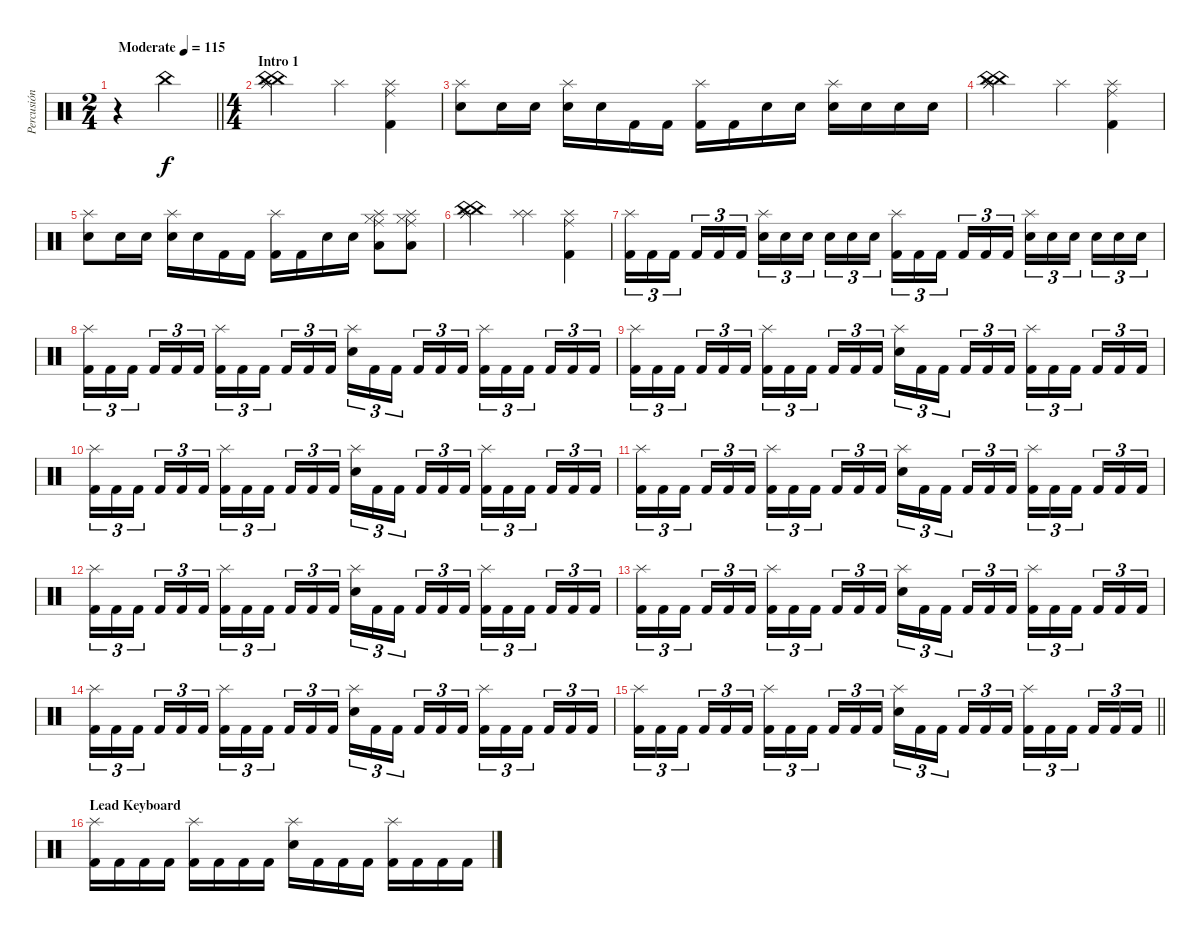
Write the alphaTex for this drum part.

\track ("Percusión" "Percusión") {instrument percussion}
\staff {score}
\articulation defaults
\ts (2 4)
\tempo (115 "Moderate")
\clef neutral
\barLineRight lightlight
\ks c
r.4{dy f} "China (hit)".4 |
\ts (4 4)
\section ("" "Intro 1")
("China (hit)" "China (hit)" "Splash (hit)" "Splash (hit)").2 "Splash (hit)".4 ("Splash (hit)" "Ride (middle)" "Kick (hit) 2").4 |
("Splash (hit)" "Snare (hit) 2").8 "Snare (hit) 2".16 "Snare (hit) 2".16 ("Splash (hit)" "Snare (hit) 2").16 "Snare (hit) 2".16 "Kick (hit) 2".16 "Kick (hit) 2".16 ("Splash (hit)" "Kick (hit) 2").16 "Kick (hit) 2".16 "Electric Snare (hit)".16 "Electric Snare (hit)".16 ("Splash (hit)" "Electric Snare (hit)").16 "Electric Snare (hit)".16 "Electric Snare (hit)".16 "Electric Snare (hit)".16 |
("China (hit)" "China (hit)" "Splash (hit)" "Splash (hit)").2 "Splash (hit)".4 ("Splash (hit)" "Ride (middle)" "Kick (hit) 2").4 |
("Splash (hit)" "Snare (hit) 2").8 "Snare (hit) 2".16 "Snare (hit) 2".16 ("Splash (hit)" "Snare (hit) 2").16 "Snare (hit) 2".16 "Kick (hit) 2".16 "Kick (hit) 2".16 ("Splash (hit)" "Kick (hit) 2").16 "Kick (hit) 2".16 "Electric Snare (hit)".16 "Electric Snare (hit)".16 ("Splash (hit)" "Hi-Hat (closed)" "Ride (middle)" "Low Floor Tom (hit)").8 ("Splash (hit)" "Hi-Hat (closed)" "Ride (middle)" "Low Floor Tom (hit)").8 |
("China (hit)" "China (hit)" "Splash (hit)" "Splash (hit)").2 ("Splash (hit)" "Splash (hit)").4 ("Splash (hit)" "Ride (middle)" "Kick (hit) 2").4 |
("Splash (hit)" "Kick (hit) 2").16{tu (3 2)} "Kick (hit) 2".16{tu (3 2)} "Kick (hit) 2".16{tu (3 2) beam splitsecondary} "Kick (hit) 2".16{tu (3 2)} "Kick (hit) 2".16{tu (3 2)} "Kick (hit) 2".16{tu (3 2)} ("Splash (hit)" "Snare (hit) 2").16{tu (3 2)} "Snare (hit) 2".16{tu (3 2)} "Snare (hit) 2".16{tu (3 2) beam splitsecondary} "Snare (hit) 2".16{tu (3 2)} "Snare (hit) 2".16{tu (3 2)} "Snare (hit) 2".16{tu (3 2)} ("Splash (hit)" "Kick (hit) 2").16{tu (3 2)} "Kick (hit) 2".16{tu (3 2)} "Kick (hit) 2".16{tu (3 2) beam splitsecondary} "Kick (hit) 2".16{tu (3 2)} "Kick (hit) 2".16{tu (3 2)} "Kick (hit) 2".16{tu (3 2)} ("Splash (hit)" "Snare (hit) 2").16{tu (3 2)} "Snare (hit) 2".16{tu (3 2)} "Snare (hit) 2".16{tu (3 2) beam splitsecondary} "Snare (hit) 2".16{tu (3 2)} "Snare (hit) 2".16{tu (3 2)} "Snare (hit) 2".16{tu (3 2)} |
("Splash (hit)" "Kick (hit) 2").16{tu (3 2)} "Kick (hit) 2".16{tu (3 2)} "Kick (hit) 2".16{tu (3 2) beam splitsecondary} "Kick (hit) 2".16{tu (3 2)} "Kick (hit) 2".16{tu (3 2)} "Kick (hit) 2".16{tu (3 2)} ("Splash (hit)" "Kick (hit) 2").16{tu (3 2)} "Kick (hit) 2".16{tu (3 2)} "Kick (hit) 2".16{tu (3 2) beam splitsecondary} "Kick (hit) 2".16{tu (3 2)} "Kick (hit) 2".16{tu (3 2)} "Kick (hit) 2".16{tu (3 2)} ("Splash (hit)" "Snare (hit) 2").16{tu (3 2)} "Kick (hit) 2".16{tu (3 2)} "Kick (hit) 2".16{tu (3 2) beam splitsecondary} "Kick (hit) 2".16{tu (3 2)} "Kick (hit) 2".16{tu (3 2)} "Kick (hit) 2".16{tu (3 2)} ("Splash (hit)" "Kick (hit) 2").16{tu (3 2)} "Kick (hit) 2".16{tu (3 2)} "Kick (hit) 2".16{tu (3 2) beam splitsecondary} "Kick (hit) 2".16{tu (3 2)} "Kick (hit) 2".16{tu (3 2)} "Kick (hit) 2".16{tu (3 2)} |
("Splash (hit)" "Kick (hit) 2").16{tu (3 2)} "Kick (hit) 2".16{tu (3 2)} "Kick (hit) 2".16{tu (3 2) beam splitsecondary} "Kick (hit) 2".16{tu (3 2)} "Kick (hit) 2".16{tu (3 2)} "Kick (hit) 2".16{tu (3 2)} ("Splash (hit)" "Kick (hit) 2").16{tu (3 2)} "Kick (hit) 2".16{tu (3 2)} "Kick (hit) 2".16{tu (3 2) beam splitsecondary} "Kick (hit) 2".16{tu (3 2)} "Kick (hit) 2".16{tu (3 2)} "Kick (hit) 2".16{tu (3 2)} ("Splash (hit)" "Snare (hit) 2").16{tu (3 2)} "Kick (hit) 2".16{tu (3 2)} "Kick (hit) 2".16{tu (3 2) beam splitsecondary} "Kick (hit) 2".16{tu (3 2)} "Kick (hit) 2".16{tu (3 2)} "Kick (hit) 2".16{tu (3 2)} ("Splash (hit)" "Kick (hit) 2").16{tu (3 2)} "Kick (hit) 2".16{tu (3 2)} "Kick (hit) 2".16{tu (3 2) beam splitsecondary} "Kick (hit) 2".16{tu (3 2)} "Kick (hit) 2".16{tu (3 2)} "Kick (hit) 2".16{tu (3 2)} |
("Splash (hit)" "Kick (hit) 2").16{tu (3 2)} "Kick (hit) 2".16{tu (3 2)} "Kick (hit) 2".16{tu (3 2) beam splitsecondary} "Kick (hit) 2".16{tu (3 2)} "Kick (hit) 2".16{tu (3 2)} "Kick (hit) 2".16{tu (3 2)} ("Splash (hit)" "Kick (hit) 2").16{tu (3 2)} "Kick (hit) 2".16{tu (3 2)} "Kick (hit) 2".16{tu (3 2) beam splitsecondary} "Kick (hit) 2".16{tu (3 2)} "Kick (hit) 2".16{tu (3 2)} "Kick (hit) 2".16{tu (3 2)} ("Splash (hit)" "Snare (hit) 2").16{tu (3 2)} "Kick (hit) 2".16{tu (3 2)} "Kick (hit) 2".16{tu (3 2) beam splitsecondary} "Kick (hit) 2".16{tu (3 2)} "Kick (hit) 2".16{tu (3 2)} "Kick (hit) 2".16{tu (3 2)} ("Splash (hit)" "Kick (hit) 2").16{tu (3 2)} "Kick (hit) 2".16{tu (3 2)} "Kick (hit) 2".16{tu (3 2) beam splitsecondary} "Kick (hit) 2".16{tu (3 2)} "Kick (hit) 2".16{tu (3 2)} "Kick (hit) 2".16{tu (3 2)} |
("Splash (hit)" "Kick (hit) 2").16{tu (3 2)} "Kick (hit) 2".16{tu (3 2)} "Kick (hit) 2".16{tu (3 2) beam splitsecondary} "Kick (hit) 2".16{tu (3 2)} "Kick (hit) 2".16{tu (3 2)} "Kick (hit) 2".16{tu (3 2)} ("Splash (hit)" "Kick (hit) 2").16{tu (3 2)} "Kick (hit) 2".16{tu (3 2)} "Kick (hit) 2".16{tu (3 2) beam splitsecondary} "Kick (hit) 2".16{tu (3 2)} "Kick (hit) 2".16{tu (3 2)} "Kick (hit) 2".16{tu (3 2)} ("Splash (hit)" "Snare (hit) 2").16{tu (3 2)} "Kick (hit) 2".16{tu (3 2)} "Kick (hit) 2".16{tu (3 2) beam splitsecondary} "Kick (hit) 2".16{tu (3 2)} "Kick (hit) 2".16{tu (3 2)} "Kick (hit) 2".16{tu (3 2)} ("Splash (hit)" "Kick (hit) 2").16{tu (3 2)} "Kick (hit) 2".16{tu (3 2)} "Kick (hit) 2".16{tu (3 2) beam splitsecondary} "Kick (hit) 2".16{tu (3 2)} "Kick (hit) 2".16{tu (3 2)} "Kick (hit) 2".16{tu (3 2)} |
("Splash (hit)" "Kick (hit) 2").16{tu (3 2)} "Kick (hit) 2".16{tu (3 2)} "Kick (hit) 2".16{tu (3 2) beam splitsecondary} "Kick (hit) 2".16{tu (3 2)} "Kick (hit) 2".16{tu (3 2)} "Kick (hit) 2".16{tu (3 2)} ("Splash (hit)" "Kick (hit) 2").16{tu (3 2)} "Kick (hit) 2".16{tu (3 2)} "Kick (hit) 2".16{tu (3 2) beam splitsecondary} "Kick (hit) 2".16{tu (3 2)} "Kick (hit) 2".16{tu (3 2)} "Kick (hit) 2".16{tu (3 2)} ("Splash (hit)" "Snare (hit) 2").16{tu (3 2)} "Kick (hit) 2".16{tu (3 2)} "Kick (hit) 2".16{tu (3 2) beam splitsecondary} "Kick (hit) 2".16{tu (3 2)} "Kick (hit) 2".16{tu (3 2)} "Kick (hit) 2".16{tu (3 2)} ("Splash (hit)" "Kick (hit) 2").16{tu (3 2)} "Kick (hit) 2".16{tu (3 2)} "Kick (hit) 2".16{tu (3 2) beam splitsecondary} "Kick (hit) 2".16{tu (3 2)} "Kick (hit) 2".16{tu (3 2)} "Kick (hit) 2".16{tu (3 2)} |
("Splash (hit)" "Kick (hit) 2").16{tu (3 2)} "Kick (hit) 2".16{tu (3 2)} "Kick (hit) 2".16{tu (3 2) beam splitsecondary} "Kick (hit) 2".16{tu (3 2)} "Kick (hit) 2".16{tu (3 2)} "Kick (hit) 2".16{tu (3 2)} ("Splash (hit)" "Kick (hit) 2").16{tu (3 2)} "Kick (hit) 2".16{tu (3 2)} "Kick (hit) 2".16{tu (3 2) beam splitsecondary} "Kick (hit) 2".16{tu (3 2)} "Kick (hit) 2".16{tu (3 2)} "Kick (hit) 2".16{tu (3 2)} ("Splash (hit)" "Snare (hit) 2").16{tu (3 2)} "Kick (hit) 2".16{tu (3 2)} "Kick (hit) 2".16{tu (3 2) beam splitsecondary} "Kick (hit) 2".16{tu (3 2)} "Kick (hit) 2".16{tu (3 2)} "Kick (hit) 2".16{tu (3 2)} ("Splash (hit)" "Kick (hit) 2").16{tu (3 2)} "Kick (hit) 2".16{tu (3 2)} "Kick (hit) 2".16{tu (3 2) beam splitsecondary} "Kick (hit) 2".16{tu (3 2)} "Kick (hit) 2".16{tu (3 2)} "Kick (hit) 2".16{tu (3 2)} |
("Splash (hit)" "Kick (hit) 2").16{tu (3 2)} "Kick (hit) 2".16{tu (3 2)} "Kick (hit) 2".16{tu (3 2) beam splitsecondary} "Kick (hit) 2".16{tu (3 2)} "Kick (hit) 2".16{tu (3 2)} "Kick (hit) 2".16{tu (3 2)} ("Splash (hit)" "Kick (hit) 2").16{tu (3 2)} "Kick (hit) 2".16{tu (3 2)} "Kick (hit) 2".16{tu (3 2) beam splitsecondary} "Kick (hit) 2".16{tu (3 2)} "Kick (hit) 2".16{tu (3 2)} "Kick (hit) 2".16{tu (3 2)} ("Splash (hit)" "Snare (hit) 2").16{tu (3 2)} "Kick (hit) 2".16{tu (3 2)} "Kick (hit) 2".16{tu (3 2) beam splitsecondary} "Kick (hit) 2".16{tu (3 2)} "Kick (hit) 2".16{tu (3 2)} "Kick (hit) 2".16{tu (3 2)} ("Splash (hit)" "Kick (hit) 2").16{tu (3 2)} "Kick (hit) 2".16{tu (3 2)} "Kick (hit) 2".16{tu (3 2) beam splitsecondary} "Kick (hit) 2".16{tu (3 2)} "Kick (hit) 2".16{tu (3 2)} "Kick (hit) 2".16{tu (3 2)} |
\barLineRight lightlight
("Splash (hit)" "Kick (hit) 2").16{tu (3 2)} "Kick (hit) 2".16{tu (3 2)} "Kick (hit) 2".16{tu (3 2) beam splitsecondary} "Kick (hit) 2".16{tu (3 2)} "Kick (hit) 2".16{tu (3 2)} "Kick (hit) 2".16{tu (3 2)} ("Splash (hit)" "Kick (hit) 2").16{tu (3 2)} "Kick (hit) 2".16{tu (3 2)} "Kick (hit) 2".16{tu (3 2) beam splitsecondary} "Kick (hit) 2".16{tu (3 2)} "Kick (hit) 2".16{tu (3 2)} "Kick (hit) 2".16{tu (3 2)} ("Splash (hit)" "Snare (hit) 2").16{tu (3 2)} "Kick (hit) 2".16{tu (3 2)} "Kick (hit) 2".16{tu (3 2) beam splitsecondary} "Kick (hit) 2".16{tu (3 2)} "Kick (hit) 2".16{tu (3 2)} "Kick (hit) 2".16{tu (3 2)} ("Splash (hit)" "Kick (hit) 2").16{tu (3 2)} "Kick (hit) 2".16{tu (3 2)} "Kick (hit) 2".16{tu (3 2) beam splitsecondary} "Kick (hit) 2".16{tu (3 2)} "Kick (hit) 2".16{tu (3 2)} "Kick (hit) 2".16{tu (3 2)} |
\section ("" "Lead Keyboard")
("Splash (hit)" "Kick (hit) 2").16 "Kick (hit) 2".16 "Kick (hit) 2".16 "Kick (hit) 2".16 ("Splash (hit)" "Kick (hit) 2").16 "Kick (hit) 2".16 "Kick (hit) 2".16 "Kick (hit) 2".16 ("Splash (hit)" "Snare (hit) 2").16 "Kick (hit) 2".16 "Kick (hit) 2".16 "Kick (hit) 2".16 ("Splash (hit)" "Kick (hit) 2").16 "Kick (hit) 2".16 "Kick (hit) 2".16 "Kick (hit) 2".16
